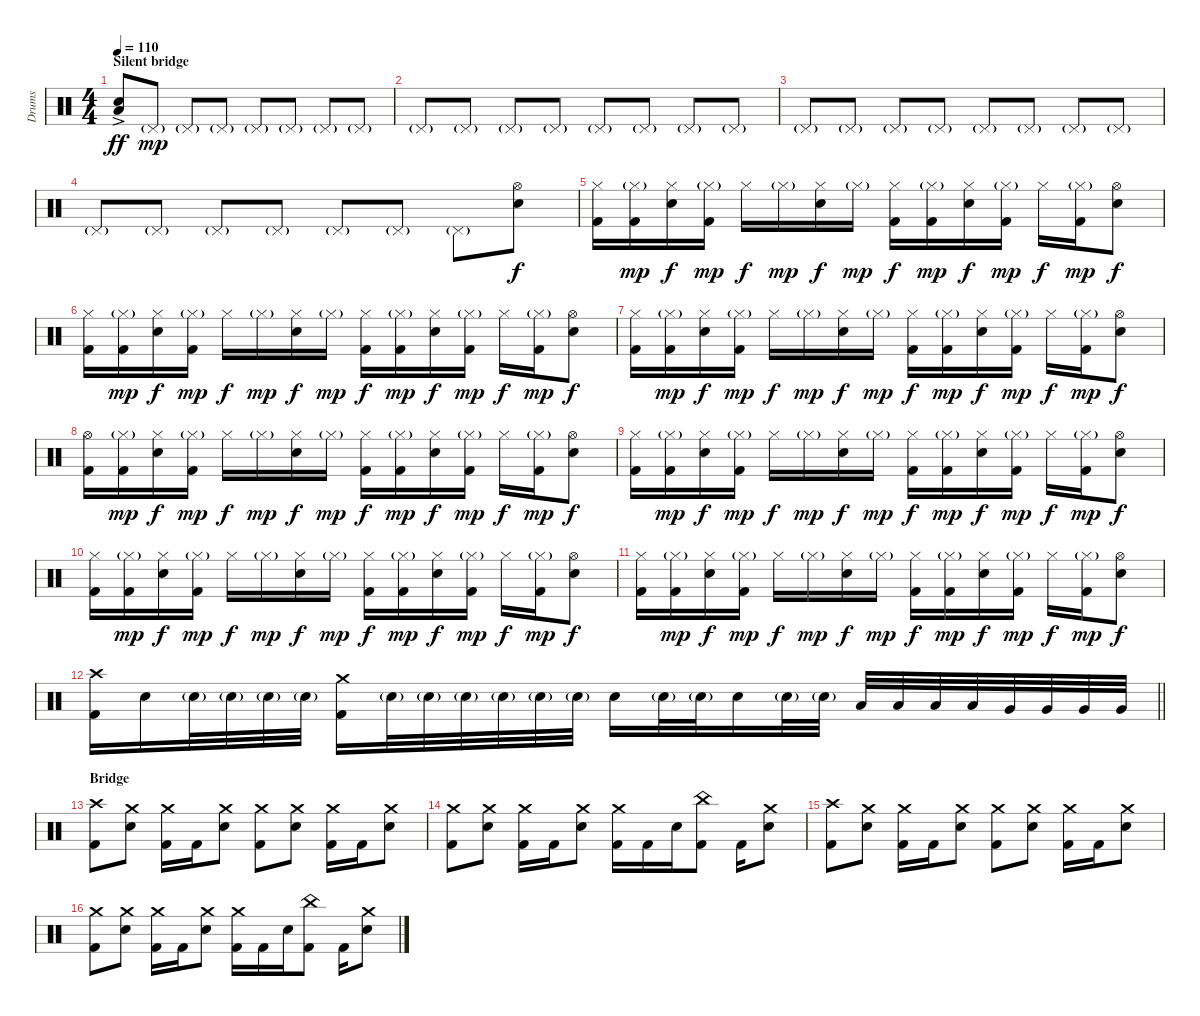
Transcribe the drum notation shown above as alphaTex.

\track ("Drums" "Drums") {instrument percussion}
\staff {score}
\articulation defaults
\ts (4 4)
\section ("" "Silent bridge")
\tempo 110
\clef neutral
\ks c
("Low Floor Tom (hit)"{ac} "Electric Snare (hit)"{ac}).8{dy ff} "Pedal Hi-Hat (hit)"{g}.8{dy mp} "Pedal Hi-Hat (hit)"{g}.8 "Pedal Hi-Hat (hit)"{g}.8 "Pedal Hi-Hat (hit)"{g}.8 "Pedal Hi-Hat (hit)"{g}.8 "Pedal Hi-Hat (hit)"{g}.8 "Pedal Hi-Hat (hit)"{g}.8 |
"Pedal Hi-Hat (hit)"{g}.8 "Pedal Hi-Hat (hit)"{g}.8 "Pedal Hi-Hat (hit)"{g}.8 "Pedal Hi-Hat (hit)"{g}.8 "Pedal Hi-Hat (hit)"{g}.8 "Pedal Hi-Hat (hit)"{g}.8 "Pedal Hi-Hat (hit)"{g}.8 "Pedal Hi-Hat (hit)"{g}.8 |
"Pedal Hi-Hat (hit)"{g}.8 "Pedal Hi-Hat (hit)"{g}.8 "Pedal Hi-Hat (hit)"{g}.8 "Pedal Hi-Hat (hit)"{g}.8 "Pedal Hi-Hat (hit)"{g}.8 "Pedal Hi-Hat (hit)"{g}.8 "Pedal Hi-Hat (hit)"{g}.8 "Pedal Hi-Hat (hit)"{g}.8 |
"Pedal Hi-Hat (hit)"{g}.8 "Pedal Hi-Hat (hit)"{g}.8 "Pedal Hi-Hat (hit)"{g}.8 "Pedal Hi-Hat (hit)"{g}.8 "Pedal Hi-Hat (hit)"{g}.8 "Pedal Hi-Hat (hit)"{g}.8 "Pedal Hi-Hat (hit)"{g}.8 ("Hi-Hat (open)" "Electric Snare (hit)").8{dy f} |
("Hi-Hat (closed)" "Kick (hit) 2").16 ("Hi-Hat (closed)"{g} "Kick (hit) 2").16{dy mp} ("Hi-Hat (closed)" "Electric Snare (hit)").16{dy f} ("Hi-Hat (closed)"{g} "Kick (hit) 2").16{dy mp} "Hi-Hat (closed)".16{dy f} "Hi-Hat (closed)"{g}.16{dy mp} ("Hi-Hat (closed)" "Electric Snare (hit)").16{dy f} "Hi-Hat (closed)"{g}.16{dy mp} ("Hi-Hat (closed)" "Kick (hit) 2").16{dy f} ("Hi-Hat (closed)"{g} "Kick (hit) 2").16{dy mp} ("Hi-Hat (closed)" "Electric Snare (hit)").16{dy f} ("Hi-Hat (closed)"{g} "Kick (hit) 2").16{dy mp} "Hi-Hat (closed)".16{dy f} ("Hi-Hat (closed)"{g} "Kick (hit) 2").16{dy mp} ("Hi-Hat (open)" "Electric Snare (hit)").8{dy f} |
("Hi-Hat (closed)" "Kick (hit) 2").16 ("Hi-Hat (closed)"{g} "Kick (hit) 2").16{dy mp} ("Hi-Hat (closed)" "Electric Snare (hit)").16{dy f} ("Hi-Hat (closed)"{g} "Kick (hit) 2").16{dy mp} "Hi-Hat (closed)".16{dy f} "Hi-Hat (closed)"{g}.16{dy mp} ("Hi-Hat (closed)" "Electric Snare (hit)").16{dy f} "Hi-Hat (closed)"{g}.16{dy mp} ("Hi-Hat (closed)" "Kick (hit) 2").16{dy f} ("Hi-Hat (closed)"{g} "Kick (hit) 2").16{dy mp} ("Hi-Hat (closed)" "Electric Snare (hit)").16{dy f} ("Hi-Hat (closed)"{g} "Kick (hit) 2").16{dy mp} "Hi-Hat (closed)".16{dy f} ("Hi-Hat (closed)"{g} "Kick (hit) 2").16{dy mp} ("Hi-Hat (open)" "Electric Snare (hit)").8{dy f} |
("Hi-Hat (closed)" "Kick (hit) 2").16 ("Hi-Hat (closed)"{g} "Kick (hit) 2").16{dy mp} ("Hi-Hat (closed)" "Electric Snare (hit)").16{dy f} ("Hi-Hat (closed)"{g} "Kick (hit) 2").16{dy mp} "Hi-Hat (closed)".16{dy f} "Hi-Hat (closed)"{g}.16{dy mp} ("Hi-Hat (closed)" "Electric Snare (hit)").16{dy f} "Hi-Hat (closed)"{g}.16{dy mp} ("Hi-Hat (closed)" "Kick (hit) 2").16{dy f} ("Hi-Hat (closed)"{g} "Kick (hit) 2").16{dy mp} ("Hi-Hat (closed)" "Electric Snare (hit)").16{dy f} ("Hi-Hat (closed)"{g} "Kick (hit) 2").16{dy mp} "Hi-Hat (closed)".16{dy f} ("Hi-Hat (closed)"{g} "Kick (hit) 2").16{dy mp} ("Hi-Hat (open)" "Electric Snare (hit)").8{dy f} |
("Hi-Hat (open)" "Kick (hit) 2").16 ("Hi-Hat (closed)"{g} "Kick (hit) 2").16{dy mp} ("Hi-Hat (closed)" "Electric Snare (hit)").16{dy f} ("Hi-Hat (closed)"{g} "Kick (hit) 2").16{dy mp} "Hi-Hat (closed)".16{dy f} "Hi-Hat (closed)"{g}.16{dy mp} ("Hi-Hat (closed)" "Electric Snare (hit)").16{dy f} "Hi-Hat (closed)"{g}.16{dy mp} ("Hi-Hat (closed)" "Kick (hit) 2").16{dy f} ("Hi-Hat (closed)"{g} "Kick (hit) 2").16{dy mp} ("Hi-Hat (closed)" "Electric Snare (hit)").16{dy f} ("Hi-Hat (closed)"{g} "Kick (hit) 2").16{dy mp} "Hi-Hat (closed)".16{dy f} ("Hi-Hat (closed)"{g} "Kick (hit) 2").16{dy mp} ("Hi-Hat (open)" "Electric Snare (hit)").8{dy f} |
("Hi-Hat (closed)" "Kick (hit) 2").16 ("Hi-Hat (closed)"{g} "Kick (hit) 2").16{dy mp} ("Hi-Hat (closed)" "Electric Snare (hit)").16{dy f} ("Hi-Hat (closed)"{g} "Kick (hit) 2").16{dy mp} "Hi-Hat (closed)".16{dy f} "Hi-Hat (closed)"{g}.16{dy mp} ("Hi-Hat (closed)" "Electric Snare (hit)").16{dy f} "Hi-Hat (closed)"{g}.16{dy mp} ("Hi-Hat (closed)" "Kick (hit) 2").16{dy f} ("Hi-Hat (closed)"{g} "Kick (hit) 2").16{dy mp} ("Hi-Hat (closed)" "Electric Snare (hit)").16{dy f} ("Hi-Hat (closed)"{g} "Kick (hit) 2").16{dy mp} "Hi-Hat (closed)".16{dy f} ("Hi-Hat (closed)"{g} "Kick (hit) 2").16{dy mp} ("Hi-Hat (open)" "Electric Snare (hit)").8{dy f} |
("Hi-Hat (closed)" "Kick (hit) 2").16 ("Hi-Hat (closed)"{g} "Kick (hit) 2").16{dy mp} ("Hi-Hat (closed)" "Electric Snare (hit)").16{dy f} ("Hi-Hat (closed)"{g} "Kick (hit) 2").16{dy mp} "Hi-Hat (closed)".16{dy f} "Hi-Hat (closed)"{g}.16{dy mp} ("Hi-Hat (closed)" "Electric Snare (hit)").16{dy f} "Hi-Hat (closed)"{g}.16{dy mp} ("Hi-Hat (closed)" "Kick (hit) 2").16{dy f} ("Hi-Hat (closed)"{g} "Kick (hit) 2").16{dy mp} ("Hi-Hat (closed)" "Electric Snare (hit)").16{dy f} ("Hi-Hat (closed)"{g} "Kick (hit) 2").16{dy mp} "Hi-Hat (closed)".16{dy f} ("Hi-Hat (closed)"{g} "Kick (hit) 2").16{dy mp} ("Hi-Hat (open)" "Electric Snare (hit)").8{dy f} |
("Hi-Hat (closed)" "Kick (hit) 2").16 ("Hi-Hat (closed)"{g} "Kick (hit) 2").16{dy mp} ("Hi-Hat (closed)" "Electric Snare (hit)").16{dy f} ("Hi-Hat (closed)"{g} "Kick (hit) 2").16{dy mp} "Hi-Hat (closed)".16{dy f} "Hi-Hat (closed)"{g}.16{dy mp} ("Hi-Hat (closed)" "Electric Snare (hit)").16{dy f} "Hi-Hat (closed)"{g}.16{dy mp} ("Hi-Hat (closed)" "Kick (hit) 2").16{dy f} ("Hi-Hat (closed)"{g} "Kick (hit) 2").16{dy mp} ("Hi-Hat (closed)" "Electric Snare (hit)").16{dy f} ("Hi-Hat (closed)"{g} "Kick (hit) 2").16{dy mp} "Hi-Hat (closed)".16{dy f} ("Hi-Hat (closed)"{g} "Kick (hit) 2").16{dy mp} ("Hi-Hat (open)" "Electric Snare (hit)").8{dy f} |
\barLineRight lightlight
("Crash high (hit)" "Kick (hit) 2").16 "Electric Snare (hit)".16 "Electric Snare (hit)"{g}.32 "Electric Snare (hit)"{g}.32 "Electric Snare (hit)"{g}.32 "Electric Snare (hit)"{g}.32 ("Crash medium (hit)" "Kick (hit) 2").16 "Electric Snare (hit)"{g}.32 "Electric Snare (hit)"{g}.32 "Electric Snare (hit)"{g}.32 "Electric Snare (hit)"{g}.32 "Electric Snare (hit)"{g}.32 "Electric Snare (hit)"{g}.32 "Electric Snare (hit)".16 "Electric Snare (hit)"{g}.32 "Electric Snare (hit)"{g}.32 "Electric Snare (hit)".16 "Electric Snare (hit)"{g}.32 "Electric Snare (hit)"{g}.32 "Low Tom (hit)".32 "Low Tom (hit)".32 "Low Tom (hit)".32 "Low Tom (hit)".32 "Very Low Tom (hit)".32 "Very Low Tom (hit)".32 "Very Low Tom (hit)".32 "Very Low Tom (hit)".32 |
\section ("" "Bridge")
("Crash high (hit)" "Kick (hit) 2").8 ("Crash medium (hit)" "Electric Snare (hit)").8 ("Crash medium (hit)" "Kick (hit) 2").16 "Kick (hit) 2".16 ("Crash medium (hit)" "Electric Snare (hit)").8 ("Crash medium (hit)" "Kick (hit) 2").8 ("Crash medium (hit)" "Electric Snare (hit)").8 ("Crash medium (hit)" "Kick (hit) 2").16 "Kick (hit) 2".16 ("Crash medium (hit)" "Electric Snare (hit)").8 |
("Crash medium (hit)" "Kick (hit) 2").8 ("Crash medium (hit)" "Electric Snare (hit)").8 ("Crash medium (hit)" "Kick (hit) 2").16 "Kick (hit) 2".16 ("Crash medium (hit)" "Electric Snare (hit)").8 ("Crash medium (hit)" "Kick (hit) 2").16 "Kick (hit) 2".16 "Electric Snare (hit)".16 ("China (hit)" "Kick (hit) 2").8 "Kick (hit) 2".16 ("Crash medium (hit)" "Electric Snare (hit)").8 |
("Crash high (hit)" "Kick (hit) 2").8 ("Crash medium (hit)" "Electric Snare (hit)").8 ("Crash medium (hit)" "Kick (hit) 2").16 "Kick (hit) 2".16 ("Crash medium (hit)" "Electric Snare (hit)").8 ("Crash medium (hit)" "Kick (hit) 2").8 ("Crash medium (hit)" "Electric Snare (hit)").8 ("Crash medium (hit)" "Kick (hit) 2").16 "Kick (hit) 2".16 ("Crash medium (hit)" "Electric Snare (hit)").8 |
("Crash medium (hit)" "Kick (hit) 2").8 ("Crash medium (hit)" "Electric Snare (hit)").8 ("Crash medium (hit)" "Kick (hit) 2").16 "Kick (hit) 2".16 ("Crash medium (hit)" "Electric Snare (hit)").8 ("Crash medium (hit)" "Kick (hit) 2").16 "Kick (hit) 2".16 "Electric Snare (hit)".16 ("China (hit)" "Kick (hit) 2").8 "Kick (hit) 2".16 ("Crash medium (hit)" "Electric Snare (hit)").8
